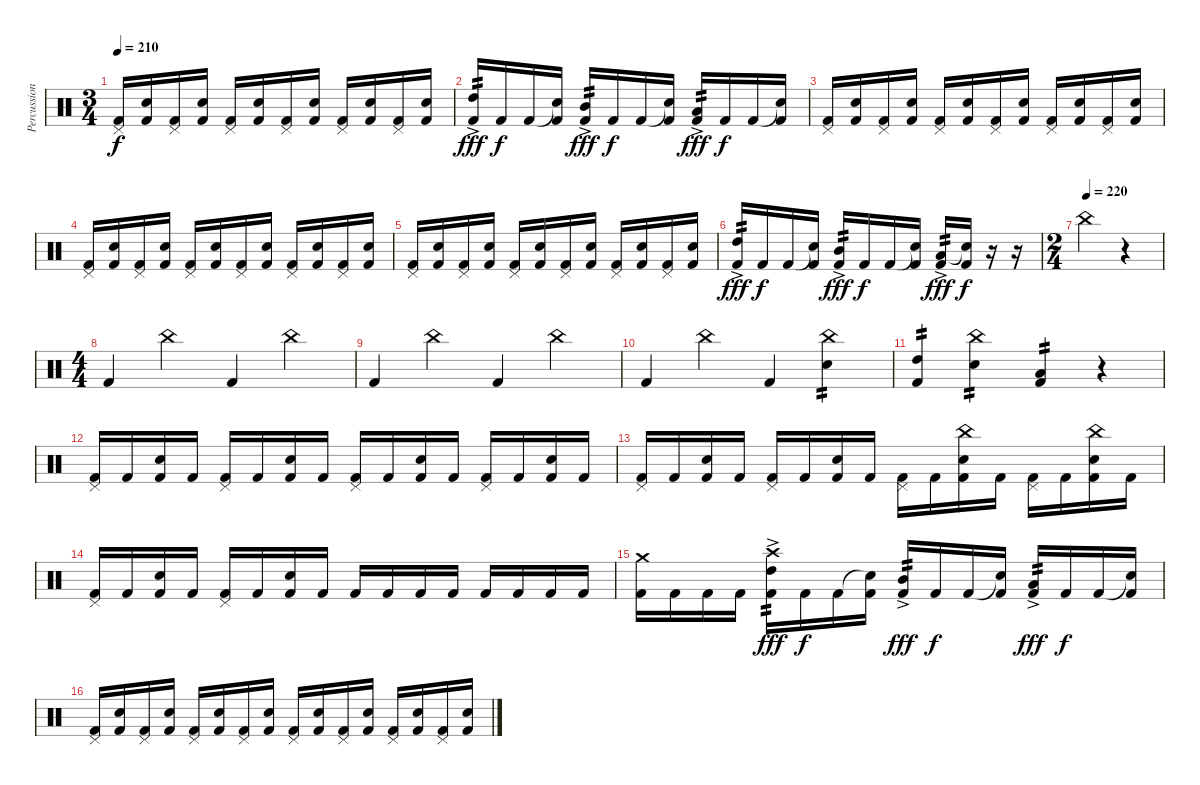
\track ("Percussions" "Percussion") {instrument percussion}
\staff {score}
\articulation defaults
\ts (3 4)
\tempo 210
\clef neutral
\ks c
("Pedal Hi-Hat (hit)" "Kick (hit) 2").16{dy f} ("Snare (hit) 2" "Kick (hit) 2").16 ("Pedal Hi-Hat (hit)" "Kick (hit) 2").16 ("Snare (hit) 2" "Kick (hit) 2").16 ("Pedal Hi-Hat (hit)" "Kick (hit) 2").16 ("Snare (hit) 2" "Kick (hit) 2").16 ("Pedal Hi-Hat (hit)" "Kick (hit) 2").16 ("Snare (hit) 2" "Kick (hit) 2").16 ("Pedal Hi-Hat (hit)" "Kick (hit) 2").16 ("Snare (hit) 2" "Kick (hit) 2").16 ("Pedal Hi-Hat (hit)" "Kick (hit) 2").16 ("Snare (hit) 2" "Kick (hit) 2").16 |
("High Tom (hit)"{ac} "Kick (hit) 2").16{tp 2 dy fff} "Kick (hit) 2".16{dy f} "Kick (hit) 2".16 ("Snare (hit) 2"{t} "Kick (hit) 2").16 ("Mid Tom (hit)"{ac} "Kick (hit) 2").16{tp 2 dy fff} "Kick (hit) 2".16{dy f} "Kick (hit) 2".16 ("Snare (hit) 2"{t} "Kick (hit) 2").16 ("Low Tom (hit)"{ac} "Kick (hit) 2").16{tp 2 dy fff} "Kick (hit) 2".16{dy f} "Kick (hit) 2".16 ("Snare (hit) 2"{t} "Kick (hit) 2").16 |
("Pedal Hi-Hat (hit)" "Kick (hit) 2").16 ("Snare (hit) 2" "Kick (hit) 2").16 ("Pedal Hi-Hat (hit)" "Kick (hit) 2").16 ("Snare (hit) 2" "Kick (hit) 2").16 ("Pedal Hi-Hat (hit)" "Kick (hit) 2").16 ("Snare (hit) 2" "Kick (hit) 2").16 ("Pedal Hi-Hat (hit)" "Kick (hit) 2").16 ("Snare (hit) 2" "Kick (hit) 2").16 ("Pedal Hi-Hat (hit)" "Kick (hit) 2").16 ("Snare (hit) 2" "Kick (hit) 2").16 ("Pedal Hi-Hat (hit)" "Kick (hit) 2").16 ("Snare (hit) 2" "Kick (hit) 2").16 |
("Pedal Hi-Hat (hit)" "Kick (hit) 2").16 ("Snare (hit) 2" "Kick (hit) 2").16 ("Pedal Hi-Hat (hit)" "Kick (hit) 2").16 ("Snare (hit) 2" "Kick (hit) 2").16 ("Pedal Hi-Hat (hit)" "Kick (hit) 2").16 ("Snare (hit) 2" "Kick (hit) 2").16 ("Pedal Hi-Hat (hit)" "Kick (hit) 2").16 ("Snare (hit) 2" "Kick (hit) 2").16 ("Pedal Hi-Hat (hit)" "Kick (hit) 2").16 ("Snare (hit) 2" "Kick (hit) 2").16 ("Pedal Hi-Hat (hit)" "Kick (hit) 2").16 ("Snare (hit) 2" "Kick (hit) 2").16 |
("Pedal Hi-Hat (hit)" "Kick (hit) 2").16 ("Snare (hit) 2" "Kick (hit) 2").16 ("Pedal Hi-Hat (hit)" "Kick (hit) 2").16 ("Snare (hit) 2" "Kick (hit) 2").16 ("Pedal Hi-Hat (hit)" "Kick (hit) 2").16 ("Snare (hit) 2" "Kick (hit) 2").16 ("Pedal Hi-Hat (hit)" "Kick (hit) 2").16 ("Snare (hit) 2" "Kick (hit) 2").16 ("Pedal Hi-Hat (hit)" "Kick (hit) 2").16 ("Snare (hit) 2" "Kick (hit) 2").16 ("Pedal Hi-Hat (hit)" "Kick (hit) 2").16 ("Snare (hit) 2" "Kick (hit) 2").16 |
("High Tom (hit)"{ac} "Kick (hit) 2").16{tp 2 dy fff} "Kick (hit) 2".16{dy f} "Kick (hit) 2".16 ("Snare (hit) 2"{t} "Kick (hit) 2").16 ("Mid Tom (hit)"{ac} "Kick (hit) 2").16{tp 2 dy fff} "Kick (hit) 2".16{dy f} "Kick (hit) 2".16 ("Snare (hit) 2"{t} "Kick (hit) 2").16 ("Low Tom (hit)"{ac} "Kick (hit) 2").16{tp 2 dy fff} ("Snare (hit)"{t} "Kick (hit) 2").16{dy f} r.16 r.16 |
\ts (2 4)
\tempo (220)
"China (hit)".4 r.4 |
\ts (4 4)
"Kick (hit) 2".4 "China (hit)".4 "Kick (hit) 2".4 "China (hit)".4 |
"Kick (hit) 2".4 "China (hit)".4 "Kick (hit) 2".4 "China (hit)".4 |
"Kick (hit) 2".4 "China (hit)".4 "Kick (hit) 2".4 ("Snare (hit) 2" "China (hit)").4{tp 2} |
("High Tom (hit)" "Kick (hit) 2").4{tp 2} ("Snare (hit) 2" "China (hit)").4{tp 2} ("Low Tom (hit)" "Kick (hit) 2").4{tp 2} r.4 |
("Pedal Hi-Hat (hit)" "Kick (hit) 2").16 "Kick (hit) 2".16 ("Snare (hit) 2" "Kick (hit) 2").16 "Kick (hit) 2".16 ("Pedal Hi-Hat (hit)" "Kick (hit) 2").16 "Kick (hit) 2".16 ("Snare (hit) 2" "Kick (hit) 2").16 "Kick (hit) 2".16 ("Pedal Hi-Hat (hit)" "Kick (hit) 2").16 "Kick (hit) 2".16 ("Snare (hit) 2" "Kick (hit) 2").16 "Kick (hit) 2".16 ("Pedal Hi-Hat (hit)" "Kick (hit) 2").16 "Kick (hit) 2".16 ("Snare (hit) 2" "Kick (hit) 2").16 "Kick (hit) 2".16 |
("Pedal Hi-Hat (hit)" "Kick (hit) 2").16 "Kick (hit) 2".16 ("Snare (hit) 2" "Kick (hit) 2").16 "Kick (hit) 2".16 ("Pedal Hi-Hat (hit)" "Kick (hit) 2").16 "Kick (hit) 2".16 ("Snare (hit) 2" "Kick (hit) 2").16 "Kick (hit) 2".16 ("Pedal Hi-Hat (hit)" "Kick (hit) 2").16 "Kick (hit) 2".16 ("China (hit)" "Snare (hit) 2" "Kick (hit) 2").16 "Kick (hit) 2".16 ("Pedal Hi-Hat (hit)" "Kick (hit) 2").16 "Kick (hit) 2".16 ("China (hit)" "Snare (hit) 2" "Kick (hit) 2").16 "Kick (hit) 2".16 |
("Pedal Hi-Hat (hit)" "Kick (hit) 2").16 "Kick (hit) 2".16 ("Snare (hit) 2" "Kick (hit) 2").16 "Kick (hit) 2".16 ("Pedal Hi-Hat (hit)" "Kick (hit) 2").16 "Kick (hit) 2".16 ("Snare (hit) 2" "Kick (hit) 2").16 "Kick (hit) 2".16 "Kick (hit) 2".16 "Kick (hit) 2".16 "Kick (hit) 2".16 "Kick (hit) 2".16 "Kick (hit) 2".16 "Kick (hit) 2".16 "Kick (hit) 2".16 "Kick (hit) 2".16 |
("Crash medium (hit)" "Kick (hit) 2").16 "Kick (hit) 2".16 "Kick (hit) 2".16 "Kick (hit) 2".16 ("Crash high (hit)" "High Tom (hit)"{ac} "Kick (hit) 2").16{tp 2 dy fff} "Kick (hit) 2".16{dy f} "Kick (hit) 2".16 ("Snare (hit)"{t} "Kick (hit) 2").16 ("Mid Tom (hit)"{ac} "Kick (hit) 2").16{tp 2 dy fff} "Kick (hit) 2".16{dy f} "Kick (hit) 2".16 ("Snare (hit)"{t} "Kick (hit) 2").16 ("Low Tom (hit)"{ac} "Kick (hit) 2").16{tp 2 dy fff} "Kick (hit) 2".16{dy f} "Kick (hit) 2".16 ("Snare (hit)"{t} "Kick (hit) 2").16 |
("Pedal Hi-Hat (hit)" "Kick (hit) 2").16 ("Snare (hit) 2" "Kick (hit) 2").16 ("Pedal Hi-Hat (hit)" "Kick (hit) 2").16 ("Snare (hit) 2" "Kick (hit) 2").16 ("Pedal Hi-Hat (hit)" "Kick (hit) 2").16 ("Snare (hit) 2" "Kick (hit) 2").16 ("Pedal Hi-Hat (hit)" "Kick (hit) 2").16 ("Snare (hit) 2" "Kick (hit) 2").16 ("Pedal Hi-Hat (hit)" "Kick (hit) 2").16 ("Snare (hit) 2" "Kick (hit) 2").16 ("Pedal Hi-Hat (hit)" "Kick (hit) 2").16 ("Snare (hit) 2" "Kick (hit) 2").16 ("Pedal Hi-Hat (hit)" "Kick (hit) 2").16 ("Snare (hit) 2" "Kick (hit) 2").16 ("Pedal Hi-Hat (hit)" "Kick (hit) 2").16 ("Snare (hit) 2" "Kick (hit) 2").16
